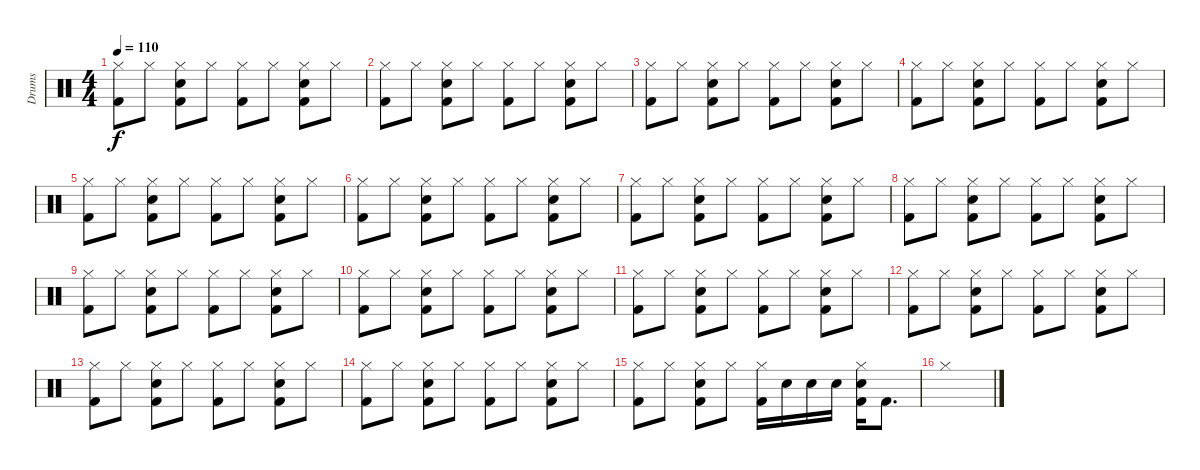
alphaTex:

\track ("Drums" "Drums") {instrument percussion}
\staff {score}
\articulation defaults
\ts (4 4)
\tempo 110
\clef neutral
\ks c
("Hi-Hat (closed)" "Kick (hit) 2").8{dy f} "Hi-Hat (closed)".8 ("Hi-Hat (closed)" "Snare (hit) 2" "Kick (hit) 2").8 "Hi-Hat (closed)".8 ("Hi-Hat (closed)" "Kick (hit) 2").8 "Hi-Hat (closed)".8 ("Hi-Hat (closed)" "Snare (hit) 2" "Kick (hit) 2").8 "Hi-Hat (closed)".8 |
("Hi-Hat (closed)" "Kick (hit) 2").8 "Hi-Hat (closed)".8 ("Hi-Hat (closed)" "Snare (hit) 2" "Kick (hit) 2").8 "Hi-Hat (closed)".8 ("Hi-Hat (closed)" "Kick (hit) 2").8 "Hi-Hat (closed)".8 ("Hi-Hat (closed)" "Snare (hit) 2" "Kick (hit) 2").8 "Hi-Hat (closed)".8 |
("Hi-Hat (closed)" "Kick (hit) 2").8 "Hi-Hat (closed)".8 ("Hi-Hat (closed)" "Snare (hit) 2" "Kick (hit) 2").8 "Hi-Hat (closed)".8 ("Hi-Hat (closed)" "Kick (hit) 2").8 "Hi-Hat (closed)".8 ("Hi-Hat (closed)" "Snare (hit) 2" "Kick (hit) 2").8 "Hi-Hat (closed)".8 |
("Hi-Hat (closed)" "Kick (hit) 2").8 "Hi-Hat (closed)".8 ("Hi-Hat (closed)" "Snare (hit) 2" "Kick (hit) 2").8 "Hi-Hat (closed)".8 ("Hi-Hat (closed)" "Kick (hit) 2").8 "Hi-Hat (closed)".8 ("Hi-Hat (closed)" "Snare (hit) 2" "Kick (hit) 2").8 "Hi-Hat (closed)".8 |
("Hi-Hat (closed)" "Kick (hit) 2").8 "Hi-Hat (closed)".8 ("Hi-Hat (closed)" "Snare (hit) 2" "Kick (hit) 2").8 "Hi-Hat (closed)".8 ("Hi-Hat (closed)" "Kick (hit) 2").8 "Hi-Hat (closed)".8 ("Hi-Hat (closed)" "Snare (hit) 2" "Kick (hit) 2").8 "Hi-Hat (closed)".8 |
("Hi-Hat (closed)" "Kick (hit) 2").8 "Hi-Hat (closed)".8 ("Hi-Hat (closed)" "Snare (hit) 2" "Kick (hit) 2").8 "Hi-Hat (closed)".8 ("Hi-Hat (closed)" "Kick (hit) 2").8 "Hi-Hat (closed)".8 ("Hi-Hat (closed)" "Snare (hit) 2" "Kick (hit) 2").8 "Hi-Hat (closed)".8 |
("Hi-Hat (closed)" "Kick (hit) 2").8 "Hi-Hat (closed)".8 ("Hi-Hat (closed)" "Snare (hit) 2" "Kick (hit) 2").8 "Hi-Hat (closed)".8 ("Hi-Hat (closed)" "Kick (hit) 2").8 "Hi-Hat (closed)".8 ("Hi-Hat (closed)" "Snare (hit) 2" "Kick (hit) 2").8 "Hi-Hat (closed)".8 |
("Hi-Hat (closed)" "Kick (hit) 2").8 "Hi-Hat (closed)".8 ("Hi-Hat (closed)" "Snare (hit) 2" "Kick (hit) 2").8 "Hi-Hat (closed)".8 ("Hi-Hat (closed)" "Kick (hit) 2").8 "Hi-Hat (closed)".8 ("Hi-Hat (closed)" "Snare (hit) 2" "Kick (hit) 2").8 "Hi-Hat (closed)".8 |
("Hi-Hat (closed)" "Kick (hit) 2").8 "Hi-Hat (closed)".8 ("Hi-Hat (closed)" "Snare (hit) 2" "Kick (hit) 2").8 "Hi-Hat (closed)".8 ("Hi-Hat (closed)" "Kick (hit) 2").8 "Hi-Hat (closed)".8 ("Hi-Hat (closed)" "Snare (hit) 2" "Kick (hit) 2").8 "Hi-Hat (closed)".8 |
("Hi-Hat (closed)" "Kick (hit) 2").8 "Hi-Hat (closed)".8 ("Hi-Hat (closed)" "Snare (hit) 2" "Kick (hit) 2").8 "Hi-Hat (closed)".8 ("Hi-Hat (closed)" "Kick (hit) 2").8 "Hi-Hat (closed)".8 ("Hi-Hat (closed)" "Snare (hit) 2" "Kick (hit) 2").8 "Hi-Hat (closed)".8 |
("Hi-Hat (closed)" "Kick (hit) 2").8 "Hi-Hat (closed)".8 ("Hi-Hat (closed)" "Snare (hit) 2" "Kick (hit) 2").8 "Hi-Hat (closed)".8 ("Hi-Hat (closed)" "Kick (hit) 2").8 "Hi-Hat (closed)".8 ("Hi-Hat (closed)" "Snare (hit) 2" "Kick (hit) 2").8 "Hi-Hat (closed)".8 |
("Hi-Hat (closed)" "Kick (hit) 2").8 "Hi-Hat (closed)".8 ("Hi-Hat (closed)" "Snare (hit) 2" "Kick (hit) 2").8 "Hi-Hat (closed)".8 ("Hi-Hat (closed)" "Kick (hit) 2").8 "Hi-Hat (closed)".8 ("Hi-Hat (closed)" "Snare (hit) 2" "Kick (hit) 2").8 "Hi-Hat (closed)".8 |
("Hi-Hat (closed)" "Kick (hit) 2").8 "Hi-Hat (closed)".8 ("Hi-Hat (closed)" "Snare (hit) 2" "Kick (hit) 2").8 "Hi-Hat (closed)".8 ("Hi-Hat (closed)" "Kick (hit) 2").8 "Hi-Hat (closed)".8 ("Hi-Hat (closed)" "Snare (hit) 2" "Kick (hit) 2").8 "Hi-Hat (closed)".8 |
("Hi-Hat (closed)" "Kick (hit) 2").8 "Hi-Hat (closed)".8 ("Hi-Hat (closed)" "Snare (hit) 2" "Kick (hit) 2").8 "Hi-Hat (closed)".8 ("Hi-Hat (closed)" "Kick (hit) 2").8 "Hi-Hat (closed)".8 ("Hi-Hat (closed)" "Snare (hit) 2" "Kick (hit) 2").8 "Hi-Hat (closed)".8 |
("Hi-Hat (closed)" "Kick (hit) 2").8 "Hi-Hat (closed)".8 ("Hi-Hat (closed)" "Snare (hit) 2" "Kick (hit) 2").8 "Hi-Hat (closed)".8 ("Hi-Hat (closed)" "Kick (hit) 2").16 "Snare (hit) 2".16 "Snare (hit) 2".16 "Snare (hit) 2".16 ("Hi-Hat (closed)" "Snare (hit) 2" "Kick (hit) 2").16 "Kick (hit) 2".8{d} |
"Hi-Hat (closed)".1
